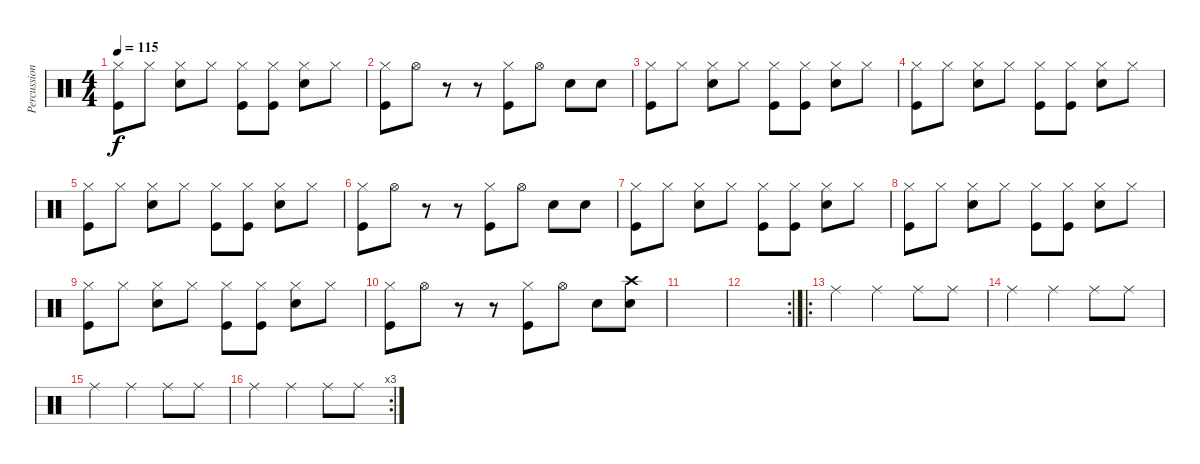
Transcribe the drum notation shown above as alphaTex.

\track ("Percussions" "Percussion") {instrument percussion}
\staff {score}
\articulation defaults
\ts (4 4)
\tempo 115
\clef neutral
\ks c
("Hi-Hat (closed)" "Kick (hit)").8{dy f} "Hi-Hat (closed)".8 ("Hi-Hat (closed)" "Snare (hit) 2").8 "Hi-Hat (closed)".8 ("Hi-Hat (closed)" "Kick (hit)").8 ("Hi-Hat (closed)" "Kick (hit)").8 ("Hi-Hat (closed)" "Snare (hit) 2").8 "Hi-Hat (closed)".8 |
("Hi-Hat (closed)" "Kick (hit)").8 "Hi-Hat (open)".8 r.8 r.8 ("Hi-Hat (closed)" "Kick (hit)").8 "Hi-Hat (open)".8 "Snare (hit) 2".8 "Snare (hit) 2".8 |
("Hi-Hat (closed)" "Kick (hit)").8 "Hi-Hat (closed)".8 ("Hi-Hat (closed)" "Snare (hit) 2").8 "Hi-Hat (closed)".8 ("Hi-Hat (closed)" "Kick (hit)").8 ("Hi-Hat (closed)" "Kick (hit)").8 ("Hi-Hat (closed)" "Snare (hit) 2").8 "Hi-Hat (closed)".8 |
("Hi-Hat (closed)" "Kick (hit)").8 "Hi-Hat (closed)".8 ("Hi-Hat (closed)" "Snare (hit) 2").8 "Hi-Hat (closed)".8 ("Hi-Hat (closed)" "Kick (hit)").8 ("Hi-Hat (closed)" "Kick (hit)").8 ("Hi-Hat (closed)" "Snare (hit) 2").8 "Hi-Hat (closed)".8 |
("Hi-Hat (closed)" "Kick (hit)").8 "Hi-Hat (closed)".8 ("Hi-Hat (closed)" "Snare (hit) 2").8 "Hi-Hat (closed)".8 ("Hi-Hat (closed)" "Kick (hit)").8 ("Hi-Hat (closed)" "Kick (hit)").8 ("Hi-Hat (closed)" "Snare (hit) 2").8 "Hi-Hat (closed)".8 |
("Hi-Hat (closed)" "Kick (hit)").8 "Hi-Hat (open)".8 r.8 r.8 ("Hi-Hat (closed)" "Kick (hit)").8 "Hi-Hat (open)".8 "Snare (hit) 2".8 "Snare (hit) 2".8 |
("Hi-Hat (closed)" "Kick (hit)").8 "Hi-Hat (closed)".8 ("Hi-Hat (closed)" "Snare (hit) 2").8 "Hi-Hat (closed)".8 ("Hi-Hat (closed)" "Kick (hit)").8 ("Hi-Hat (closed)" "Kick (hit)").8 ("Hi-Hat (closed)" "Snare (hit) 2").8 "Hi-Hat (closed)".8 |
("Hi-Hat (closed)" "Kick (hit)").8 "Hi-Hat (closed)".8 ("Hi-Hat (closed)" "Snare (hit) 2").8 "Hi-Hat (closed)".8 ("Hi-Hat (closed)" "Kick (hit)").8 ("Hi-Hat (closed)" "Kick (hit)").8 ("Hi-Hat (closed)" "Snare (hit) 2").8 "Hi-Hat (closed)".8 |
("Hi-Hat (closed)" "Kick (hit)").8 "Hi-Hat (closed)".8 ("Hi-Hat (closed)" "Snare (hit) 2").8 "Hi-Hat (closed)".8 ("Hi-Hat (closed)" "Kick (hit)").8 ("Hi-Hat (closed)" "Kick (hit)").8 ("Hi-Hat (closed)" "Snare (hit) 2").8 "Hi-Hat (closed)".8 |
("Hi-Hat (closed)" "Kick (hit)").8 "Hi-Hat (open)".8 r.8 r.8 ("Hi-Hat (closed)" "Kick (hit)").8 "Hi-Hat (open)".8 "Snare (hit) 2".8 ("Crash high (hit)" "Snare (hit) 2").8 |
|
\rc 2
|
\ro "Ride (middle)".4 "Ride (middle)".4 "Ride (middle)".8 "Ride (middle)".8
|
"Ride (middle)".4 "Ride (middle)".4 "Ride (middle)".8 "Ride (middle)".8 |
"Ride (middle)".4 "Ride (middle)".4 "Ride (middle)".8 "Ride (middle)".8 |
\rc 3 "Ride (middle)".4 "Ride (middle)".4 "Ride (middle)".8 "Ride (middle)".8
